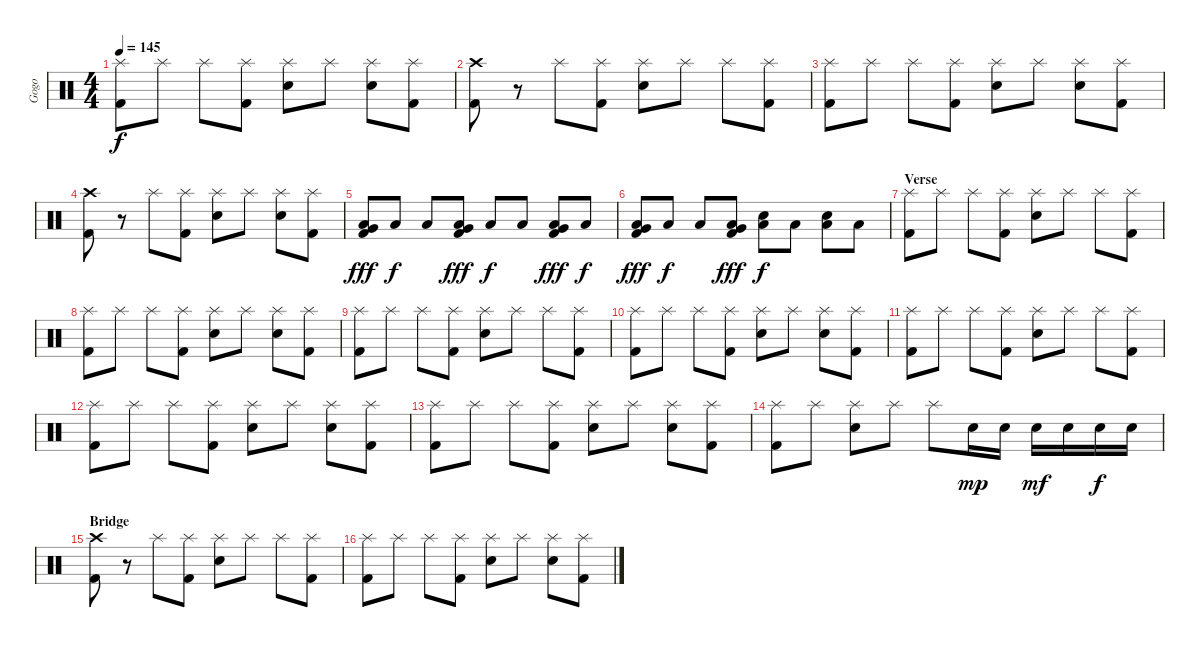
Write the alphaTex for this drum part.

\track ("Gogo" "Gogo") {instrument percussion}
\staff {score}
\articulation defaults
\ts (4 4)
\tempo 145
\clef neutral
\ks c
("Splash (hit)" "Kick (hit) 2").8{dy f} "Splash (hit)".8 "Splash (hit)".8 ("Splash (hit)" "Kick (hit) 2").8 ("Splash (hit)" "Electric Snare (hit)").8 "Splash (hit)".8 ("Splash (hit)" "Electric Snare (hit)").8 ("Splash (hit)" "Kick (hit) 2").8 |
("Crash high (hit)" "Kick (hit) 2").8 r.8 "Splash (hit)".8 ("Splash (hit)" "Kick (hit) 2").8 ("Splash (hit)" "Electric Snare (hit)").8 "Splash (hit)".8 "Splash (hit)".8 ("Splash (hit)" "Kick (hit) 2").8 |
("Splash (hit)" "Kick (hit) 2").8 "Splash (hit)".8 "Splash (hit)".8 ("Splash (hit)" "Kick (hit) 2").8 ("Splash (hit)" "Electric Snare (hit)").8 "Splash (hit)".8 ("Splash (hit)" "Electric Snare (hit)").8 ("Splash (hit)" "Kick (hit) 2").8 |
("Crash high (hit)" "Kick (hit) 2").8 r.8 "Splash (hit)".8 ("Splash (hit)" "Kick (hit) 2").8 ("Splash (hit)" "Electric Snare (hit)").8 "Splash (hit)".8 ("Splash (hit)" "Electric Snare (hit)").8 ("Splash (hit)" "Kick (hit) 2").8 |
("Very Low Tom (hit)" "Low Floor Tom (hit)" "Kick (hit) 2").8{dy fff} "Low Floor Tom (hit)".8{dy f} "Low Floor Tom (hit)".8 ("Very Low Tom (hit)" "Low Floor Tom (hit)" "Kick (hit) 2").8{dy fff} "Low Floor Tom (hit)".8{dy f} "Low Floor Tom (hit)".8 ("Very Low Tom (hit)" "Low Floor Tom (hit)" "Kick (hit) 2").8{dy fff} "Low Floor Tom (hit)".8{dy f} |
("Very Low Tom (hit)" "Low Floor Tom (hit)" "Kick (hit) 2").8{dy fff} "Low Floor Tom (hit)".8{dy f} "Low Floor Tom (hit)".8 ("Very Low Tom (hit)" "Low Floor Tom (hit)" "Kick (hit) 2").8{dy fff} ("Snare (hit) 2" "Low Floor Tom (hit)").8{dy f} "Low Floor Tom (hit)".8 ("Snare (hit) 2" "Low Floor Tom (hit)").8 "Low Floor Tom (hit)".8 |
\section ("" "Verse")
("Splash (hit)" "Kick (hit) 2").8 "Splash (hit)".8 "Splash (hit)".8 ("Splash (hit)" "Kick (hit) 2").8 ("Splash (hit)" "Electric Snare (hit)").8 "Splash (hit)".8 "Splash (hit)".8 ("Splash (hit)" "Kick (hit) 2").8 |
("Splash (hit)" "Kick (hit) 2").8 "Splash (hit)".8 "Splash (hit)".8 ("Splash (hit)" "Kick (hit) 2").8 ("Splash (hit)" "Electric Snare (hit)").8 "Splash (hit)".8 ("Splash (hit)" "Electric Snare (hit)").8 ("Splash (hit)" "Kick (hit) 2").8 |
("Splash (hit)" "Kick (hit) 2").8 "Splash (hit)".8 "Splash (hit)".8 ("Splash (hit)" "Kick (hit) 2").8 ("Splash (hit)" "Electric Snare (hit)").8 "Splash (hit)".8 "Splash (hit)".8 ("Splash (hit)" "Kick (hit) 2").8 |
("Splash (hit)" "Kick (hit) 2").8 "Splash (hit)".8 "Splash (hit)".8 ("Splash (hit)" "Kick (hit) 2").8 ("Splash (hit)" "Electric Snare (hit)").8 "Splash (hit)".8 ("Splash (hit)" "Electric Snare (hit)").8 ("Splash (hit)" "Kick (hit) 2").8 |
("Splash (hit)" "Kick (hit) 2").8 "Splash (hit)".8 "Splash (hit)".8 ("Splash (hit)" "Kick (hit) 2").8 ("Splash (hit)" "Electric Snare (hit)").8 "Splash (hit)".8 "Splash (hit)".8 ("Splash (hit)" "Kick (hit) 2").8 |
("Splash (hit)" "Kick (hit) 2").8 "Splash (hit)".8 "Splash (hit)".8 ("Splash (hit)" "Kick (hit) 2").8 ("Splash (hit)" "Electric Snare (hit)").8 "Splash (hit)".8 ("Splash (hit)" "Electric Snare (hit)").8 ("Splash (hit)" "Kick (hit) 2").8 |
("Splash (hit)" "Kick (hit) 2").8 "Splash (hit)".8 "Splash (hit)".8 ("Splash (hit)" "Kick (hit) 2").8 ("Splash (hit)" "Electric Snare (hit)").8 "Splash (hit)".8 ("Splash (hit)" "Electric Snare (hit)").8 ("Splash (hit)" "Kick (hit) 2").8 |
("Splash (hit)" "Kick (hit) 2").8 "Splash (hit)".8 ("Splash (hit)" "Electric Snare (hit)").8 "Splash (hit)".8 "Splash (hit)".8 "Electric Snare (hit)".16{dy mp} "Electric Snare (hit)".16 "Electric Snare (hit)".16{dy mf} "Electric Snare (hit)".16 "Electric Snare (hit)".16{dy f} "Electric Snare (hit)".16 |
\section ("" "Bridge")
("Crash high (hit)" "Kick (hit) 2").8 r.8 "Splash (hit)".8 ("Splash (hit)" "Kick (hit) 2").8 ("Splash (hit)" "Electric Snare (hit)").8 "Splash (hit)".8 "Splash (hit)".8 ("Splash (hit)" "Kick (hit) 2").8 |
("Splash (hit)" "Kick (hit) 2").8 "Splash (hit)".8 "Splash (hit)".8 ("Splash (hit)" "Kick (hit) 2").8 ("Splash (hit)" "Electric Snare (hit)").8 "Splash (hit)".8 ("Splash (hit)" "Electric Snare (hit)").8 ("Splash (hit)" "Kick (hit) 2").8
